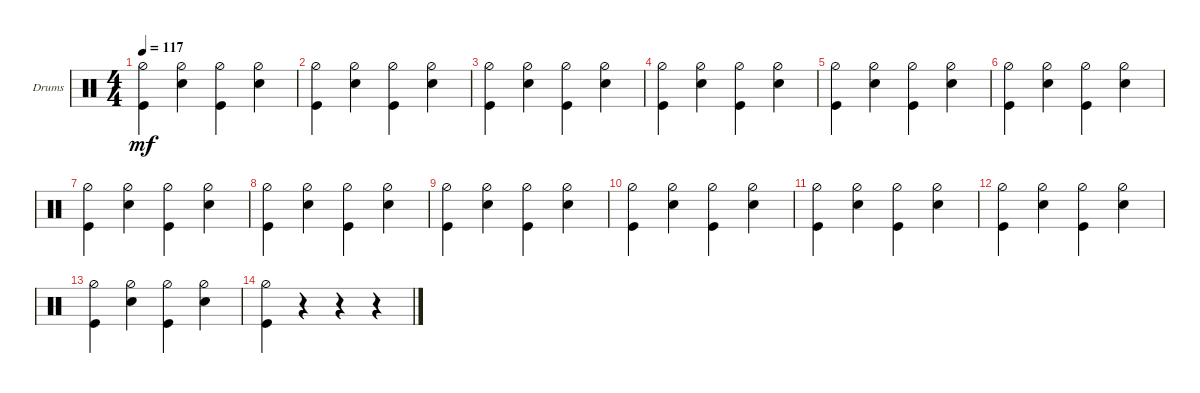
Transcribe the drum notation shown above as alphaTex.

\defaultSystemsLayout 4
\bracketExtendMode groupsimilarinstruments
\firstSystemTrackNameOrientation horizontal
\otherSystemsTrackNameOrientation horizontal
\track ("Drumkit" "Drums") {instrument percussion}
\staff {score}
\articulation defaults
\ts (4 4)
\tempo 117
\clef neutral
\ks c
("Kick (hit)" "Hi-Hat (half)").4{dy mf} ("Snare (hit) 2" "Hi-Hat (half)").4 ("Kick (hit)" "Hi-Hat (half)").4 ("Snare (hit) 2" "Hi-Hat (half)").4 |
("Kick (hit)" "Hi-Hat (half)").4 ("Snare (hit) 2" "Hi-Hat (half)").4 ("Kick (hit)" "Hi-Hat (half)").4 ("Snare (hit) 2" "Hi-Hat (half)").4 |
("Kick (hit)" "Hi-Hat (half)").4 ("Snare (hit) 2" "Hi-Hat (half)").4 ("Kick (hit)" "Hi-Hat (half)").4 ("Snare (hit) 2" "Hi-Hat (half)").4 |
("Kick (hit)" "Hi-Hat (half)").4 ("Snare (hit) 2" "Hi-Hat (half)").4 ("Kick (hit)" "Hi-Hat (half)").4 ("Snare (hit) 2" "Hi-Hat (half)").4 |
("Kick (hit)" "Hi-Hat (half)").4 ("Snare (hit) 2" "Hi-Hat (half)").4 ("Kick (hit)" "Hi-Hat (half)").4 ("Snare (hit) 2" "Hi-Hat (half)").4 |
("Kick (hit)" "Hi-Hat (half)").4 ("Snare (hit) 2" "Hi-Hat (half)").4 ("Kick (hit)" "Hi-Hat (half)").4 ("Snare (hit) 2" "Hi-Hat (half)").4 |
("Kick (hit)" "Hi-Hat (half)").4 ("Snare (hit) 2" "Hi-Hat (half)").4 ("Kick (hit)" "Hi-Hat (half)").4 ("Snare (hit) 2" "Hi-Hat (half)").4 |
("Kick (hit)" "Hi-Hat (half)").4 ("Snare (hit) 2" "Hi-Hat (half)").4 ("Kick (hit)" "Hi-Hat (half)").4 ("Snare (hit) 2" "Hi-Hat (half)").4 |
("Kick (hit)" "Hi-Hat (half)").4 ("Snare (hit) 2" "Hi-Hat (half)").4 ("Kick (hit)" "Hi-Hat (half)").4 ("Snare (hit) 2" "Hi-Hat (half)").4 |
("Kick (hit)" "Hi-Hat (half)").4 ("Snare (hit) 2" "Hi-Hat (half)").4 ("Kick (hit)" "Hi-Hat (half)").4 ("Snare (hit) 2" "Hi-Hat (half)").4 |
("Kick (hit)" "Hi-Hat (half)").4 ("Snare (hit) 2" "Hi-Hat (half)").4 ("Kick (hit)" "Hi-Hat (half)").4 ("Snare (hit) 2" "Hi-Hat (half)").4 |
("Kick (hit)" "Hi-Hat (half)").4 ("Snare (hit) 2" "Hi-Hat (half)").4 ("Kick (hit)" "Hi-Hat (half)").4 ("Snare (hit) 2" "Hi-Hat (half)").4 |
("Kick (hit)" "Hi-Hat (half)").4 ("Snare (hit) 2" "Hi-Hat (half)").4 ("Kick (hit)" "Hi-Hat (half)").4 ("Snare (hit) 2" "Hi-Hat (half)").4 |
("Kick (hit)" "Hi-Hat (half)").4 r.4 r.4 r.4
